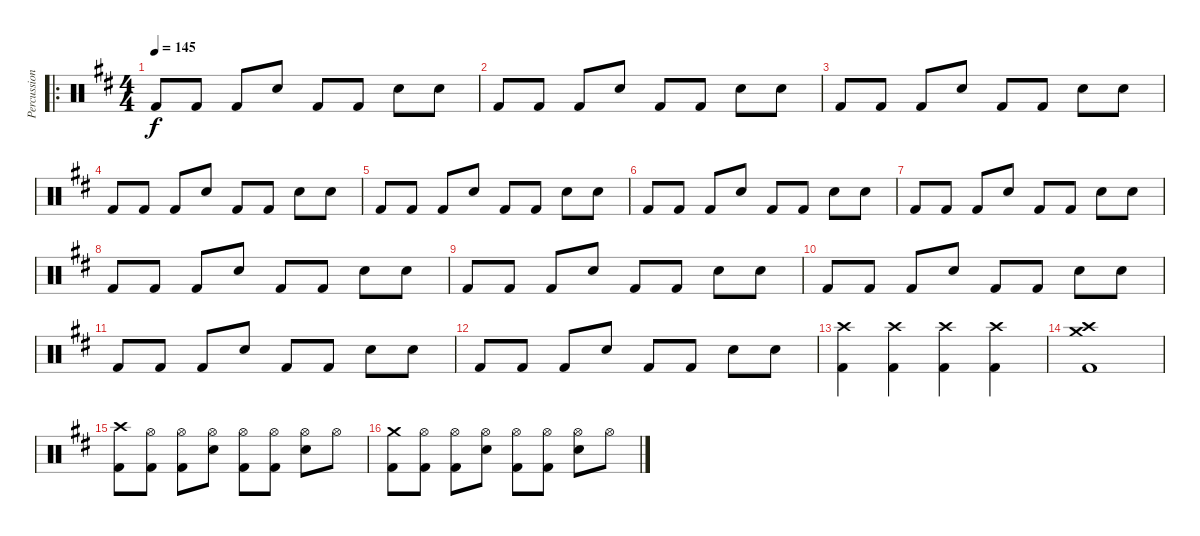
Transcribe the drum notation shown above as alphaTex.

\track ("Percussion" "Percussion") {instrument percussion}
\staff {score}
\articulation defaults
\ro
\ts (4 4)
\tempo 145
\clef neutral
\ks d "Kick (hit) 2".8{dy f volume 16} "Kick (hit) 2".8 "Kick (hit) 2".8 "Electric Snare (hit)".8 "Kick (hit) 2".8 "Kick (hit) 2".8 "Electric Snare (hit)".8 "Electric Snare (hit)".8
|
"Kick (hit) 2".8 "Kick (hit) 2".8 "Kick (hit) 2".8 "Electric Snare (hit)".8 "Kick (hit) 2".8 "Kick (hit) 2".8 "Electric Snare (hit)".8 "Electric Snare (hit)".8 |
"Kick (hit) 2".8 "Kick (hit) 2".8 "Kick (hit) 2".8 "Electric Snare (hit)".8 "Kick (hit) 2".8 "Kick (hit) 2".8 "Electric Snare (hit)".8 "Electric Snare (hit)".8 |
"Kick (hit) 2".8 "Kick (hit) 2".8 "Kick (hit) 2".8 "Electric Snare (hit)".8 "Kick (hit) 2".8 "Kick (hit) 2".8 "Electric Snare (hit)".8 "Electric Snare (hit)".8 |
"Kick (hit) 2".8 "Kick (hit) 2".8 "Kick (hit) 2".8 "Electric Snare (hit)".8 "Kick (hit) 2".8 "Kick (hit) 2".8 "Electric Snare (hit)".8 "Electric Snare (hit)".8 |
"Kick (hit) 2".8 "Kick (hit) 2".8 "Kick (hit) 2".8 "Electric Snare (hit)".8 "Kick (hit) 2".8 "Kick (hit) 2".8 "Electric Snare (hit)".8 "Electric Snare (hit)".8 |
"Kick (hit) 2".8 "Kick (hit) 2".8 "Kick (hit) 2".8 "Electric Snare (hit)".8 "Kick (hit) 2".8 "Kick (hit) 2".8 "Electric Snare (hit)".8 "Electric Snare (hit)".8 |
"Kick (hit) 2".8 "Kick (hit) 2".8 "Kick (hit) 2".8 "Electric Snare (hit)".8 "Kick (hit) 2".8 "Kick (hit) 2".8 "Electric Snare (hit)".8 "Electric Snare (hit)".8 |
"Kick (hit) 2".8 "Kick (hit) 2".8 "Kick (hit) 2".8 "Electric Snare (hit)".8 "Kick (hit) 2".8 "Kick (hit) 2".8 "Electric Snare (hit)".8 "Electric Snare (hit)".8 |
"Kick (hit) 2".8 "Kick (hit) 2".8 "Kick (hit) 2".8 "Electric Snare (hit)".8 "Kick (hit) 2".8 "Kick (hit) 2".8 "Electric Snare (hit)".8 "Electric Snare (hit)".8 |
"Kick (hit) 2".8 "Kick (hit) 2".8 "Kick (hit) 2".8 "Electric Snare (hit)".8 "Kick (hit) 2".8 "Kick (hit) 2".8 "Electric Snare (hit)".8 "Electric Snare (hit)".8 |
"Kick (hit) 2".8 "Kick (hit) 2".8 "Kick (hit) 2".8 "Electric Snare (hit)".8 "Kick (hit) 2".8 "Kick (hit) 2".8 "Electric Snare (hit)".8 "Electric Snare (hit)".8 |
("Crash high (hit)" "Kick (hit) 2").4 ("Crash high (hit)" "Kick (hit) 2").4 ("Crash high (hit)" "Kick (hit) 2").4 ("Crash high (hit)" "Kick (hit) 2").4 |
("Crash high (hit)" "Crash medium (hit)" "Kick (hit) 2").1 |
("Crash high (hit)" "Kick (hit) 2").8 ("Hi-Hat (open)" "Kick (hit) 2").8 ("Hi-Hat (open)" "Kick (hit) 2").8 ("Hi-Hat (open)" "Electric Snare (hit)").8 ("Hi-Hat (open)" "Kick (hit) 2").8 ("Hi-Hat (open)" "Kick (hit) 2").8 ("Hi-Hat (open)" "Electric Snare (hit)").8 "Hi-Hat (open)".8 |
("Crash medium (hit)" "Kick (hit) 2").8 ("Hi-Hat (open)" "Kick (hit) 2").8 ("Hi-Hat (open)" "Kick (hit) 2").8 ("Hi-Hat (open)" "Electric Snare (hit)").8 ("Hi-Hat (open)" "Kick (hit) 2").8 ("Hi-Hat (open)" "Kick (hit) 2").8 ("Hi-Hat (open)" "Electric Snare (hit)").8 "Hi-Hat (open)".8
